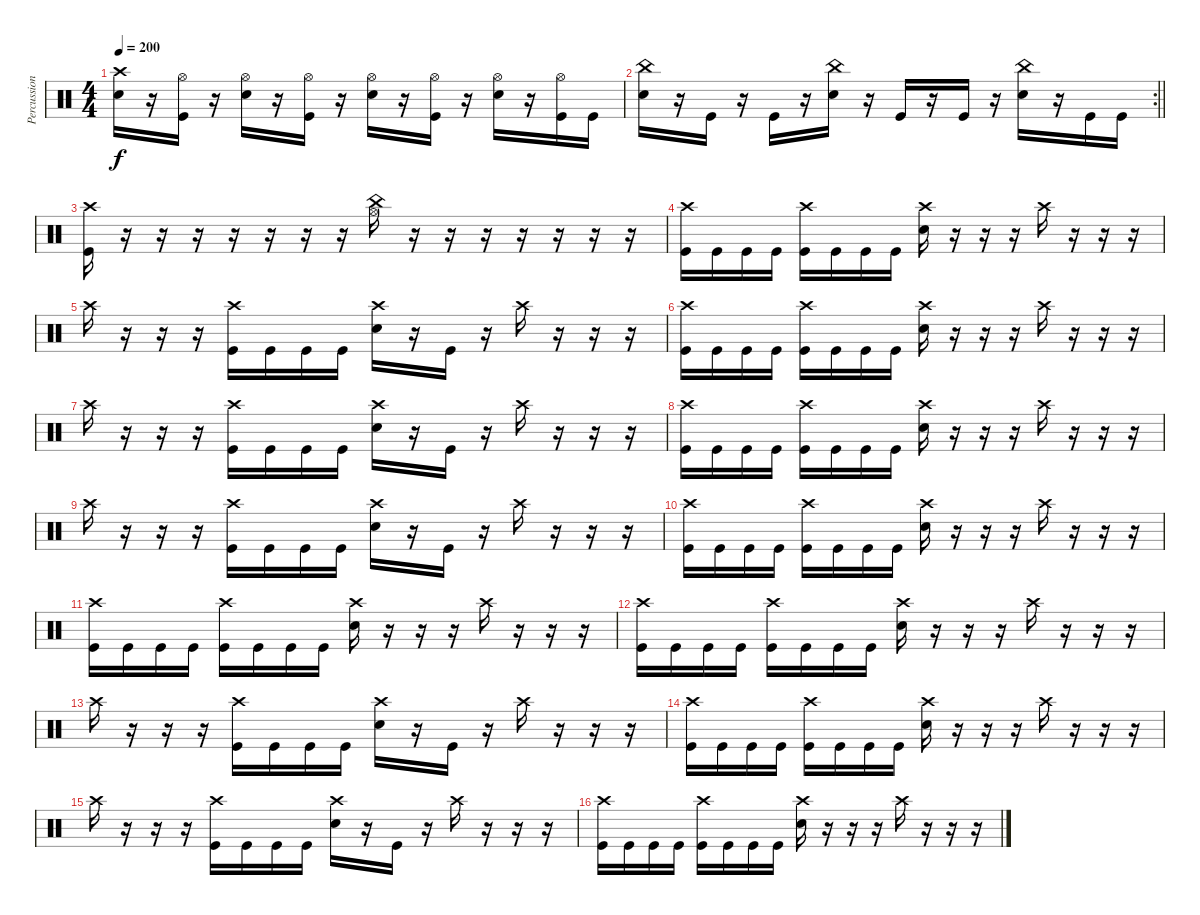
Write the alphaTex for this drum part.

\track ("Percussion" "Percussion") {instrument percussion}
\staff {score}
\articulation defaults
\ts (4 4)
\tempo 200
\clef neutral
\ks c
("Crash high (hit)" "Electric Snare (hit)").16{dy f} r.16 ("Hi-Hat (open)" "Kick (hit)").16 r.16 ("Hi-Hat (open)" "Electric Snare (hit)").16 r.16 ("Hi-Hat (open)" "Kick (hit)").16 r.16 ("Hi-Hat (open)" "Electric Snare (hit)").16 r.16 ("Hi-Hat (open)" "Kick (hit)").16 r.16 ("Hi-Hat (open)" "Electric Snare (hit)").16 r.16 ("Hi-Hat (open)" "Kick (hit)").16 "Kick (hit)".16 |
\rc 2
\barLineRight lightlight
("China (hit)" "Electric Snare (hit)").16 r.16 "Kick (hit)".16 r.16 "Kick (hit)".16 r.16 ("China (hit)" "Electric Snare (hit)").16 r.16 "Kick (hit)".16 r.16 "Kick (hit)".16 r.16 ("China (hit)" "Electric Snare (hit)").16 r.16 "Kick (hit)".16 "Kick (hit)".16 |
("Crash high (hit)" "Kick (hit)").16 r.16 r.16 r.16 r.16 r.16 r.16 r.16 ("China (hit)" "Hi-Hat (open)").16 r.16 r.16 r.16 r.16 r.16 r.16 r.16 |
("Crash high (hit)" "Kick (hit)").16 "Kick (hit)".16 "Kick (hit)".16 "Kick (hit)".16 ("Crash high (hit)" "Kick (hit)").16 "Kick (hit)".16 "Kick (hit)".16 "Kick (hit)".16 ("Crash high (hit)" "Electric Snare (hit)").16 r.16 r.16 r.16 "Crash high (hit)".16 r.16 r.16 r.16 |
"Crash high (hit)".16 r.16 r.16 r.16 ("Crash high (hit)" "Kick (hit)").16 "Kick (hit)".16 "Kick (hit)".16 "Kick (hit)".16 ("Crash high (hit)" "Electric Snare (hit)").16 r.16 "Kick (hit)".16 r.16 "Crash high (hit)".16 r.16 r.16 r.16 |
("Crash high (hit)" "Kick (hit)").16 "Kick (hit)".16 "Kick (hit)".16 "Kick (hit)".16 ("Crash high (hit)" "Kick (hit)").16 "Kick (hit)".16 "Kick (hit)".16 "Kick (hit)".16 ("Crash high (hit)" "Electric Snare (hit)").16 r.16 r.16 r.16 "Crash high (hit)".16 r.16 r.16 r.16 |
"Crash high (hit)".16 r.16 r.16 r.16 ("Crash high (hit)" "Kick (hit)").16 "Kick (hit)".16 "Kick (hit)".16 "Kick (hit)".16 ("Crash high (hit)" "Electric Snare (hit)").16 r.16 "Kick (hit)".16 r.16 "Crash high (hit)".16 r.16 r.16 r.16 |
("Crash high (hit)" "Kick (hit)").16 "Kick (hit)".16 "Kick (hit)".16 "Kick (hit)".16 ("Crash high (hit)" "Kick (hit)").16 "Kick (hit)".16 "Kick (hit)".16 "Kick (hit)".16 ("Crash high (hit)" "Electric Snare (hit)").16 r.16 r.16 r.16 "Crash high (hit)".16 r.16 r.16 r.16 |
"Crash high (hit)".16 r.16 r.16 r.16 ("Crash high (hit)" "Kick (hit)").16 "Kick (hit)".16 "Kick (hit)".16 "Kick (hit)".16 ("Crash high (hit)" "Electric Snare (hit)").16 r.16 "Kick (hit)".16 r.16 "Crash high (hit)".16 r.16 r.16 r.16 |
("Crash high (hit)" "Kick (hit)").16 "Kick (hit)".16 "Kick (hit)".16 "Kick (hit)".16 ("Crash high (hit)" "Kick (hit)").16 "Kick (hit)".16 "Kick (hit)".16 "Kick (hit)".16 ("Crash high (hit)" "Electric Snare (hit)").16 r.16 r.16 r.16 "Crash high (hit)".16 r.16 r.16 r.16 |
("Crash high (hit)" "Kick (hit)").16 "Kick (hit)".16 "Kick (hit)".16 "Kick (hit)".16 ("Crash high (hit)" "Kick (hit)").16 "Kick (hit)".16 "Kick (hit)".16 "Kick (hit)".16 ("Crash high (hit)" "Electric Snare (hit)").16 r.16 r.16 r.16 "Crash high (hit)".16 r.16 r.16 r.16 |
("Crash high (hit)" "Kick (hit)").16 "Kick (hit)".16 "Kick (hit)".16 "Kick (hit)".16 ("Crash high (hit)" "Kick (hit)").16 "Kick (hit)".16 "Kick (hit)".16 "Kick (hit)".16 ("Crash high (hit)" "Electric Snare (hit)").16 r.16 r.16 r.16 "Crash high (hit)".16 r.16 r.16 r.16 |
"Crash high (hit)".16 r.16 r.16 r.16 ("Crash high (hit)" "Kick (hit)").16 "Kick (hit)".16 "Kick (hit)".16 "Kick (hit)".16 ("Crash high (hit)" "Electric Snare (hit)").16 r.16 "Kick (hit)".16 r.16 "Crash high (hit)".16 r.16 r.16 r.16 |
("Crash high (hit)" "Kick (hit)").16 "Kick (hit)".16 "Kick (hit)".16 "Kick (hit)".16 ("Crash high (hit)" "Kick (hit)").16 "Kick (hit)".16 "Kick (hit)".16 "Kick (hit)".16 ("Crash high (hit)" "Electric Snare (hit)").16 r.16 r.16 r.16 "Crash high (hit)".16 r.16 r.16 r.16 |
"Crash high (hit)".16 r.16 r.16 r.16 ("Crash high (hit)" "Kick (hit)").16 "Kick (hit)".16 "Kick (hit)".16 "Kick (hit)".16 ("Crash high (hit)" "Electric Snare (hit)").16 r.16 "Kick (hit)".16 r.16 "Crash high (hit)".16 r.16 r.16 r.16 |
("Crash high (hit)" "Kick (hit)").16 "Kick (hit)".16 "Kick (hit)".16 "Kick (hit)".16 ("Crash high (hit)" "Kick (hit)").16 "Kick (hit)".16 "Kick (hit)".16 "Kick (hit)".16 ("Crash high (hit)" "Electric Snare (hit)").16 r.16 r.16 r.16 "Crash high (hit)".16 r.16 r.16 r.16
